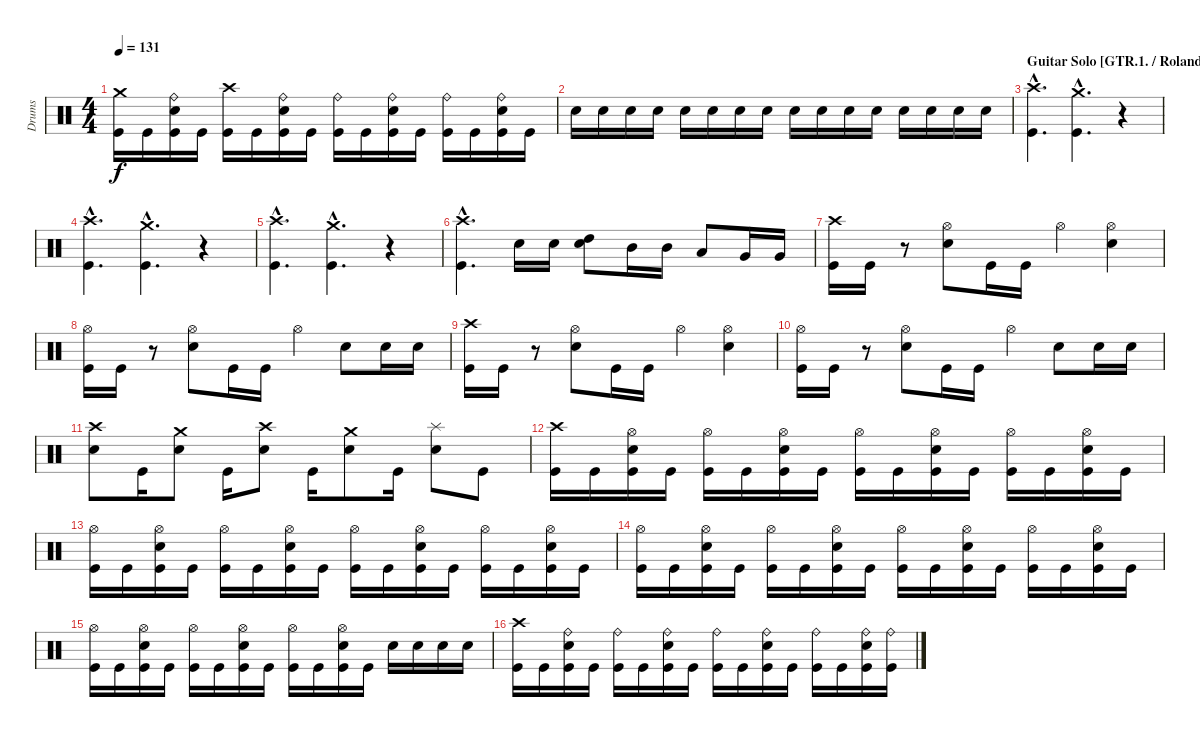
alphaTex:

\track ("Drums" "Drums") {instrument percussion}
\staff {score}
\articulation defaults
\ts (4 4)
\tempo 131
\clef neutral
\ks c
("Crash medium (hit)" "Kick (hit)").16{dy f} "Kick (hit)".16 ("Ride (bell)" "Snare (hit) 2" "Kick (hit)").16 "Kick (hit)".16 ("Crash high (hit)" "Kick (hit)").16 "Kick (hit)".16 ("Ride (bell)" "Snare (hit) 2" "Kick (hit)").16 "Kick (hit)".16 ("Ride (bell)" "Kick (hit)").16 "Kick (hit)".16 ("Ride (bell)" "Snare (hit) 2" "Kick (hit)").16 "Kick (hit)".16 ("Ride (bell)" "Kick (hit)").16 "Kick (hit)".16 ("Ride (bell)" "Snare (hit) 2" "Kick (hit)").16 "Kick (hit)".16 |
"Snare (hit) 2".16 "Snare (hit) 2".16 "Snare (hit) 2".16 "Snare (hit) 2".16 "Snare (hit) 2".16 "Snare (hit) 2".16 "Snare (hit) 2".16 "Snare (hit) 2".16 "Snare (hit) 2".16 "Snare (hit) 2".16 "Snare (hit) 2".16 "Snare (hit) 2".16 "Snare (hit) 2".16 "Snare (hit) 2".16 "Snare (hit) 2".16 "Snare (hit) 2".16 |
\section ("" "Guitar Solo [GTR.1. / Roland Grapow]")
("Crash high (hit)"{hac} "Kick (hit)"{hac}).4{d} ("Crash medium (hit)"{hac} "Kick (hit)"{hac}).4{d} r.4 |
("Crash high (hit)"{hac} "Kick (hit)"{hac}).4{d} ("Crash medium (hit)"{hac} "Kick (hit)"{hac}).4{d} r.4 |
("Crash high (hit)"{hac} "Kick (hit)"{hac}).4{d} ("Crash medium (hit)"{hac} "Kick (hit)"{hac}).4{d} r.4 |
("Crash high (hit)"{hac} "Kick (hit)"{hac}).4{d} "Snare (hit) 2".16 "Snare (hit) 2".16 ("High Tom (hit)" "Snare (hit) 2").8 "Mid Tom (hit)".16 "Mid Tom (hit)".16 "Low Tom (hit)".8 "Very Low Tom (hit)".16 "Very Low Tom (hit)".16 |
("Crash high (hit)" "Kick (hit)").16 "Kick (hit)".16 r.8 ("Hi-Hat (open)" "Snare (hit) 2").8 "Kick (hit)".16 "Kick (hit)".16 "Hi-Hat (open)".4 ("Hi-Hat (open)" "Snare (hit) 2").4 |
("Hi-Hat (open)" "Kick (hit)").16 "Kick (hit)".16 r.8 ("Hi-Hat (open)" "Snare (hit) 2").8 "Kick (hit)".16 "Kick (hit)".16 "Hi-Hat (open)".4 "Snare (hit) 2".8 "Snare (hit) 2".16 "Snare (hit) 2".16 |
("Crash high (hit)" "Kick (hit)").16 "Kick (hit)".16 r.8 ("Hi-Hat (open)" "Snare (hit) 2").8 "Kick (hit)".16 "Kick (hit)".16 "Hi-Hat (open)".4 ("Hi-Hat (open)" "Snare (hit) 2").4 |
("Hi-Hat (open)" "Kick (hit)").16 "Kick (hit)".16 r.8 ("Hi-Hat (open)" "Snare (hit) 2").8 "Kick (hit)".16 "Kick (hit)".16 "Hi-Hat (open)".4 "Snare (hit) 2".8 "Snare (hit) 2".16 "Snare (hit) 2".16 |
("Crash high (hit)" "Snare (hit) 2").8 "Kick (hit)".16 ("Crash medium (hit)" "Snare (hit) 2").8 "Kick (hit)".16 ("Crash high (hit)" "Snare (hit) 2").8 "Kick (hit)".16 ("Crash medium (hit)" "Snare (hit) 2").8 "Kick (hit)".16 ("Splash (hit)" "Snare (hit) 2").8 "Kick (hit)".8 |
("Crash high (hit)" "Kick (hit)").16 "Kick (hit)".16 ("Hi-Hat (open)" "Snare (hit) 2" "Kick (hit)").16 "Kick (hit)".16 ("Hi-Hat (open)" "Kick (hit)").16 "Kick (hit)".16 ("Hi-Hat (open)" "Snare (hit) 2" "Kick (hit)").16 "Kick (hit)".16 ("Hi-Hat (open)" "Kick (hit)").16 "Kick (hit)".16 ("Hi-Hat (open)" "Snare (hit) 2" "Kick (hit)").16 "Kick (hit)".16 ("Hi-Hat (open)" "Kick (hit)").16 "Kick (hit)".16 ("Hi-Hat (open)" "Snare (hit) 2" "Kick (hit)").16 "Kick (hit)".16 |
("Hi-Hat (open)" "Kick (hit)").16 "Kick (hit)".16 ("Hi-Hat (open)" "Snare (hit) 2" "Kick (hit)").16 "Kick (hit)".16 ("Hi-Hat (open)" "Kick (hit)").16 "Kick (hit)".16 ("Hi-Hat (open)" "Snare (hit) 2" "Kick (hit)").16 "Kick (hit)".16 ("Hi-Hat (open)" "Kick (hit)").16 "Kick (hit)".16 ("Hi-Hat (open)" "Snare (hit) 2" "Kick (hit)").16 "Kick (hit)".16 ("Hi-Hat (open)" "Kick (hit)").16 "Kick (hit)".16 ("Hi-Hat (open)" "Snare (hit) 2" "Kick (hit)").16 "Kick (hit)".16 |
("Hi-Hat (open)" "Kick (hit)").16 "Kick (hit)".16 ("Hi-Hat (open)" "Snare (hit) 2" "Kick (hit)").16 "Kick (hit)".16 ("Hi-Hat (open)" "Kick (hit)").16 "Kick (hit)".16 ("Hi-Hat (open)" "Snare (hit) 2" "Kick (hit)").16 "Kick (hit)".16 ("Hi-Hat (open)" "Kick (hit)").16 "Kick (hit)".16 ("Hi-Hat (open)" "Snare (hit) 2" "Kick (hit)").16 "Kick (hit)".16 ("Hi-Hat (open)" "Kick (hit)").16 "Kick (hit)".16 ("Hi-Hat (open)" "Snare (hit) 2" "Kick (hit)").16 "Kick (hit)".16 |
("Hi-Hat (open)" "Kick (hit)").16 "Kick (hit)".16 ("Hi-Hat (open)" "Snare (hit) 2" "Kick (hit)").16 "Kick (hit)".16 ("Hi-Hat (open)" "Kick (hit)").16 "Kick (hit)".16 ("Hi-Hat (open)" "Snare (hit) 2" "Kick (hit)").16 "Kick (hit)".16 ("Hi-Hat (open)" "Kick (hit)").16 "Kick (hit)".16 ("Hi-Hat (open)" "Snare (hit) 2" "Kick (hit)").16 "Kick (hit)".16 "Snare (hit) 2".16 "Snare (hit) 2".16 "Snare (hit) 2".16 "Snare (hit) 2".16 |
("Crash high (hit)" "Kick (hit)").16 "Kick (hit)".16 ("Ride (bell)" "Snare (hit) 2" "Kick (hit)").16 "Kick (hit)".16 ("Ride (bell)" "Kick (hit)").16 "Kick (hit)".16 ("Ride (bell)" "Snare (hit) 2" "Kick (hit)").16 "Kick (hit)".16 ("Ride (bell)" "Kick (hit)").16 "Kick (hit)".16 ("Ride (bell)" "Snare (hit) 2" "Kick (hit)").16 "Kick (hit)".16 ("Ride (bell)" "Kick (hit)").16 "Kick (hit)".16 ("Ride (bell)" "Snare (hit) 2" "Kick (hit)").16 ("Ride (bell)" "Kick (hit)").16
